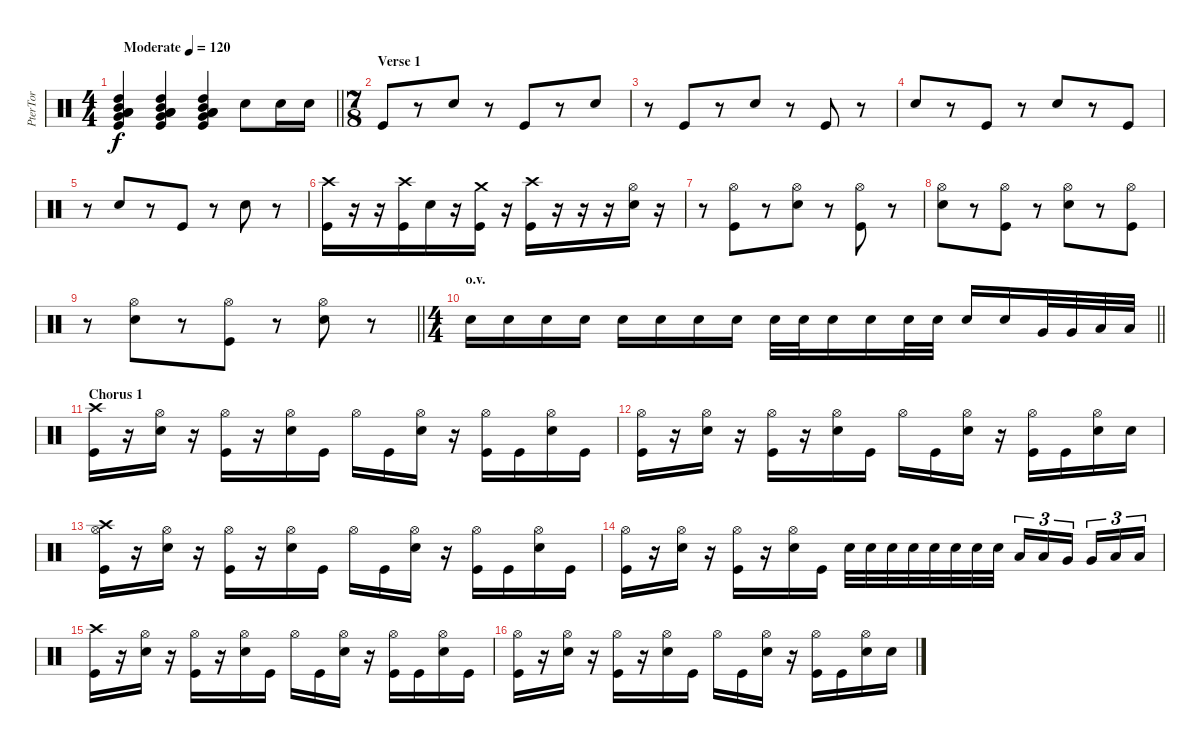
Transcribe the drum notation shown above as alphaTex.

\track ("PterTor" "PterTor") {instrument percussion}
\staff {score}
\articulation defaults
\ts (4 4)
\tempo (120 "Moderate")
\clef neutral
\barLineRight lightlight
\ks c
("Low Floor Tom (hit)" "Low Tom (hit)" "Very Low Tom (hit)" "Mid Tom (hit)" "High Tom (hit)" "Kick (hit)").4{dy f} ("Low Floor Tom (hit)" "Very Low Tom (hit)" "Low Tom (hit)" "Mid Tom (hit)" "High Tom (hit)" "Kick (hit)").4 ("Low Floor Tom (hit)" "Very Low Tom (hit)" "Low Tom (hit)" "Mid Tom (hit)" "High Tom (hit)" "Kick (hit)").4 "Electric Snare (hit)".8 "Electric Snare (hit)".16 "Electric Snare (hit)".16 |
\ts (7 8)
\section ("" "Verse 1")
"Kick (hit)".8 r.8 "Electric Snare (hit)".8 r.8 "Kick (hit)".8 r.8 "Electric Snare (hit)".8 |
r.8 "Kick (hit)".8 r.8 "Electric Snare (hit)".8 r.8 "Kick (hit)".8 r.8 |
"Electric Snare (hit)".8 r.8 "Kick (hit)".8 r.8 "Electric Snare (hit)".8 r.8 "Kick (hit)".8 |
r.8 "Electric Snare (hit)".8 r.8 "Kick (hit)".8 r.8 "Electric Snare (hit)".8 r.8 |
("Crash high (hit)" "Kick (hit)").16 r.16 r.16 ("Crash high (hit)" "Kick (hit)").16 "Electric Snare (hit)".16 r.16 ("Crash medium (hit)" "Kick (hit)").16 r.16 ("Crash high (hit)" "Kick (hit)").16 r.16 r.16 r.16 ("Electric Snare (hit)" "Hi-Hat (open)").16 r.16 |
r.8 ("Hi-Hat (open)" "Kick (hit)").8 r.8 ("Electric Snare (hit)" "Hi-Hat (open)").8 r.8 ("Hi-Hat (open)" "Kick (hit)").8 r.8 |
("Electric Snare (hit)" "Hi-Hat (open)").8 r.8 ("Hi-Hat (open)" "Kick (hit)").8 r.8 ("Electric Snare (hit)" "Hi-Hat (open)").8 r.8 ("Hi-Hat (open)" "Kick (hit)").8 |
\barLineRight lightlight
r.8 ("Electric Snare (hit)" "Hi-Hat (open)").8 r.8 ("Hi-Hat (open)" "Kick (hit)").8 r.8 ("Electric Snare (hit)" "Hi-Hat (open)").8 r.8 |
\ts (4 4)
\section ("" "o.v.")
\barLineRight lightlight "Electric Snare (hit)".16 "Electric Snare (hit)".16 "Electric Snare (hit)".16 "Electric Snare (hit)".16 "Electric Snare (hit)".16 "Electric Snare (hit)".16 "Electric Snare (hit)".16 "Electric Snare (hit)".16 "Electric Snare (hit)".32 "Electric Snare (hit)".32 "Electric Snare (hit)".16 "Electric Snare (hit)".16 "Electric Snare (hit)".32 "Electric Snare (hit)".32 "Electric Snare (hit)".16 "Electric Snare (hit)".16 "Very Low Tom (hit)".32 "Very Low Tom (hit)".32 "Low Floor Tom (hit)".32 "Low Floor Tom (hit)".32
|
\section ("" "Chorus 1")
("Crash high (hit)" "Kick (hit)").16 r.16 ("Hi-Hat (open)" "Electric Snare (hit)").16 r.16 ("Hi-Hat (open)" "Kick (hit)").16 r.16 ("Hi-Hat (open)" "Electric Snare (hit)").16 "Kick (hit)".16 "Hi-Hat (open)".16 "Kick (hit)".16 ("Hi-Hat (open)" "Electric Snare (hit)").16 r.16 ("Hi-Hat (open)" "Kick (hit)").16 "Kick (hit)".16 ("Hi-Hat (open)" "Electric Snare (hit)").16 "Kick (hit)".16 |
("Hi-Hat (open)" "Kick (hit)").16 r.16 ("Hi-Hat (open)" "Electric Snare (hit)").16 r.16 ("Hi-Hat (open)" "Kick (hit)").16 r.16 ("Hi-Hat (open)" "Electric Snare (hit)").16 "Kick (hit)".16 "Hi-Hat (open)".16 "Kick (hit)".16 ("Hi-Hat (open)" "Electric Snare (hit)").16 r.16 ("Hi-Hat (open)" "Kick (hit)").16 "Kick (hit)".16 ("Hi-Hat (open)" "Electric Snare (hit)").16 "Electric Snare (hit)".16 |
("Crash high (hit)" "Hi-Hat (open)" "Kick (hit)").16 r.16 ("Hi-Hat (open)" "Electric Snare (hit)").16 r.16 ("Hi-Hat (open)" "Kick (hit)").16 r.16 ("Hi-Hat (open)" "Electric Snare (hit)").16 "Kick (hit)".16 "Hi-Hat (open)".16 "Kick (hit)".16 ("Hi-Hat (open)" "Electric Snare (hit)").16 r.16 ("Hi-Hat (open)" "Kick (hit)").16 "Kick (hit)".16 ("Hi-Hat (open)" "Electric Snare (hit)").16 "Kick (hit)".16 |
("Hi-Hat (open)" "Kick (hit)").16 r.16 ("Hi-Hat (open)" "Electric Snare (hit)").16 r.16 ("Hi-Hat (open)" "Kick (hit)").16 r.16 ("Hi-Hat (open)" "Electric Snare (hit)").16 "Kick (hit)".16 "Electric Snare (hit)".32 "Electric Snare (hit)".32 "Electric Snare (hit)".32 "Electric Snare (hit)".32 "Electric Snare (hit)".32 "Electric Snare (hit)".32 "Electric Snare (hit)".32 "Electric Snare (hit)".32 "Low Tom (hit)".16{tu (3 2)} "Low Tom (hit)".16{tu (3 2)} "Very Low Tom (hit)".16{tu (3 2) beam splitsecondary} "Very Low Tom (hit)".16{tu (3 2)} "Low Floor Tom (hit)".16{tu (3 2)} "Low Floor Tom (hit)".16{tu (3 2)} |
("Crash high (hit)" "Kick (hit)").16 r.16 ("Hi-Hat (open)" "Electric Snare (hit)").16 r.16 ("Hi-Hat (open)" "Kick (hit)").16 r.16 ("Hi-Hat (open)" "Electric Snare (hit)").16 "Kick (hit)".16 "Hi-Hat (open)".16 "Kick (hit)".16 ("Hi-Hat (open)" "Electric Snare (hit)").16 r.16 ("Hi-Hat (open)" "Kick (hit)").16 "Kick (hit)".16 ("Hi-Hat (open)" "Electric Snare (hit)").16 "Kick (hit)".16 |
("Hi-Hat (open)" "Kick (hit)").16 r.16 ("Hi-Hat (open)" "Electric Snare (hit)").16 r.16 ("Hi-Hat (open)" "Kick (hit)").16 r.16 ("Hi-Hat (open)" "Electric Snare (hit)").16 "Kick (hit)".16 "Hi-Hat (open)".16 "Kick (hit)".16 ("Hi-Hat (open)" "Electric Snare (hit)").16 r.16 ("Hi-Hat (open)" "Kick (hit)").16 "Kick (hit)".16 ("Hi-Hat (open)" "Electric Snare (hit)").16 "Electric Snare (hit)".16
